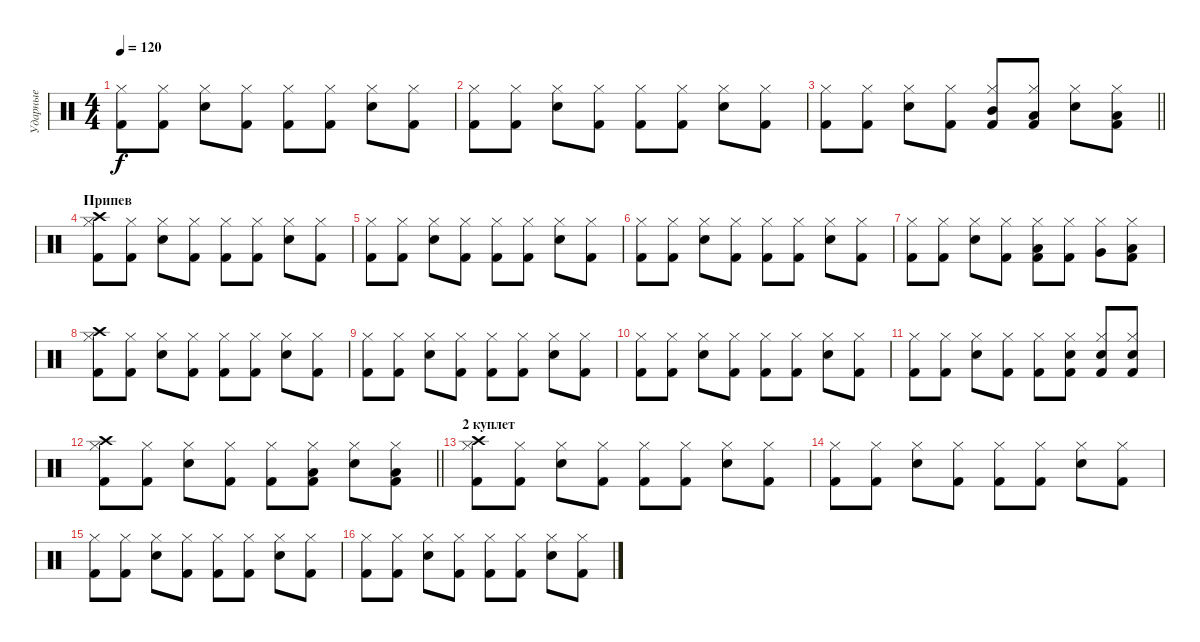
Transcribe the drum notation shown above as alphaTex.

\track ("Ударные" "Ударные") {instrument percussion}
\staff {score}
\articulation defaults
\ts (4 4)
\tempo 120
\clef neutral
\ks c
("Kick (hit) 2" "Hi-Hat (closed)").8{dy f} ("Kick (hit) 2" "Hi-Hat (closed)").8 ("Snare (hit) 2" "Hi-Hat (closed)").8 ("Kick (hit) 2" "Hi-Hat (closed)").8 ("Kick (hit) 2" "Hi-Hat (closed)").8 ("Kick (hit) 2" "Hi-Hat (closed)").8 ("Snare (hit) 2" "Hi-Hat (closed)").8 ("Kick (hit) 2" "Hi-Hat (closed)").8 |
("Kick (hit) 2" "Hi-Hat (closed)").8 ("Kick (hit) 2" "Hi-Hat (closed)").8 ("Snare (hit) 2" "Hi-Hat (closed)").8 ("Kick (hit) 2" "Hi-Hat (closed)").8 ("Kick (hit) 2" "Hi-Hat (closed)").8 ("Kick (hit) 2" "Hi-Hat (closed)").8 ("Snare (hit) 2" "Hi-Hat (closed)").8 ("Kick (hit) 2" "Hi-Hat (closed)").8 |
\barLineRight lightlight
("Kick (hit) 2" "Hi-Hat (closed)").8 ("Kick (hit) 2" "Hi-Hat (closed)").8 ("Snare (hit) 2" "Hi-Hat (closed)").8 ("Kick (hit) 2" "Hi-Hat (closed)").8 ("Kick (hit) 2" "Hi-Hat (closed)" "Mid Tom (hit)").8 ("Kick (hit) 2" "Hi-Hat (closed)" "Low Floor Tom (hit)").8 ("Snare (hit) 2" "Hi-Hat (closed)").8 ("Kick (hit) 2" "Hi-Hat (closed)" "Low Tom (hit)").8 |
\section ("" "Припев")
("Kick (hit) 2" "Hi-Hat (closed)" "Crash high (hit)").8 ("Kick (hit) 2" "Hi-Hat (closed)").8 ("Snare (hit) 2" "Hi-Hat (closed)").8 ("Kick (hit) 2" "Hi-Hat (closed)").8 ("Kick (hit) 2" "Hi-Hat (closed)").8 ("Kick (hit) 2" "Hi-Hat (closed)").8 ("Snare (hit) 2" "Hi-Hat (closed)").8 ("Kick (hit) 2" "Hi-Hat (closed)").8 |
("Kick (hit) 2" "Hi-Hat (closed)").8 ("Kick (hit) 2" "Hi-Hat (closed)").8 ("Snare (hit) 2" "Hi-Hat (closed)").8 ("Kick (hit) 2" "Hi-Hat (closed)").8 ("Kick (hit) 2" "Hi-Hat (closed)").8 ("Kick (hit) 2" "Hi-Hat (closed)").8 ("Snare (hit) 2" "Hi-Hat (closed)").8 ("Kick (hit) 2" "Hi-Hat (closed)").8 |
("Kick (hit) 2" "Hi-Hat (closed)").8 ("Kick (hit) 2" "Hi-Hat (closed)").8 ("Snare (hit) 2" "Hi-Hat (closed)").8 ("Kick (hit) 2" "Hi-Hat (closed)").8 ("Kick (hit) 2" "Hi-Hat (closed)").8 ("Kick (hit) 2" "Hi-Hat (closed)").8 ("Snare (hit) 2" "Hi-Hat (closed)").8 ("Kick (hit) 2" "Hi-Hat (closed)").8 |
("Kick (hit) 2" "Hi-Hat (closed)").8 ("Kick (hit) 2" "Hi-Hat (closed)").8 ("Snare (hit) 2" "Hi-Hat (closed)").8 ("Kick (hit) 2" "Hi-Hat (closed)").8 ("Kick (hit) 2" "Hi-Hat (closed)" "Low Tom (hit)").8 ("Kick (hit) 2" "Hi-Hat (closed)").8 ("Hi-Hat (closed)" "Very Low Tom (hit)").8 ("Kick (hit) 2" "Hi-Hat (closed)" "Low Floor Tom (hit)").8 |
("Kick (hit) 2" "Hi-Hat (closed)" "Crash high (hit)").8 ("Kick (hit) 2" "Hi-Hat (closed)").8 ("Snare (hit) 2" "Hi-Hat (closed)").8 ("Kick (hit) 2" "Hi-Hat (closed)").8 ("Kick (hit) 2" "Hi-Hat (closed)").8 ("Kick (hit) 2" "Hi-Hat (closed)").8 ("Snare (hit) 2" "Hi-Hat (closed)").8 ("Kick (hit) 2" "Hi-Hat (closed)").8 |
("Kick (hit) 2" "Hi-Hat (closed)").8 ("Kick (hit) 2" "Hi-Hat (closed)").8 ("Snare (hit) 2" "Hi-Hat (closed)").8 ("Kick (hit) 2" "Hi-Hat (closed)").8 ("Kick (hit) 2" "Hi-Hat (closed)").8 ("Kick (hit) 2" "Hi-Hat (closed)").8 ("Snare (hit) 2" "Hi-Hat (closed)").8 ("Kick (hit) 2" "Hi-Hat (closed)").8 |
("Kick (hit) 2" "Hi-Hat (closed)").8 ("Kick (hit) 2" "Hi-Hat (closed)").8 ("Snare (hit) 2" "Hi-Hat (closed)").8 ("Kick (hit) 2" "Hi-Hat (closed)").8 ("Kick (hit) 2" "Hi-Hat (closed)").8 ("Kick (hit) 2" "Hi-Hat (closed)").8 ("Snare (hit) 2" "Hi-Hat (closed)").8 ("Kick (hit) 2" "Hi-Hat (closed)").8 |
("Kick (hit) 2" "Hi-Hat (closed)").8 ("Kick (hit) 2" "Hi-Hat (closed)").8 ("Snare (hit) 2" "Hi-Hat (closed)").8 ("Kick (hit) 2" "Hi-Hat (closed)").8 ("Kick (hit) 2" "Hi-Hat (closed)").8 ("Kick (hit) 2" "Hi-Hat (closed)" "Snare (hit) 2").8 ("Snare (hit) 2" "Hi-Hat (closed)" "Kick (hit) 2").8 ("Kick (hit) 2" "Hi-Hat (closed)" "Snare (hit) 2").8 |
\barLineRight lightlight
("Kick (hit) 2" "Hi-Hat (closed)" "Crash high (hit)").8 ("Kick (hit) 2" "Hi-Hat (closed)").8 ("Snare (hit) 2" "Hi-Hat (closed)").8 ("Kick (hit) 2" "Hi-Hat (closed)").8 ("Kick (hit) 2" "Hi-Hat (closed)").8 ("Kick (hit) 2" "Hi-Hat (closed)" "Low Tom (hit)").8 ("Snare (hit) 2" "Hi-Hat (closed)").8 ("Kick (hit) 2" "Hi-Hat (closed)" "Low Floor Tom (hit)").8 |
\section ("" "2 куплет")
("Kick (hit) 2" "Hi-Hat (closed)" "Crash high (hit)").8 ("Kick (hit) 2" "Hi-Hat (closed)").8 ("Snare (hit) 2" "Hi-Hat (closed)").8 ("Kick (hit) 2" "Hi-Hat (closed)").8 ("Kick (hit) 2" "Hi-Hat (closed)").8 ("Kick (hit) 2" "Hi-Hat (closed)").8 ("Snare (hit) 2" "Hi-Hat (closed)").8 ("Kick (hit) 2" "Hi-Hat (closed)").8 |
("Kick (hit) 2" "Hi-Hat (closed)").8 ("Kick (hit) 2" "Hi-Hat (closed)").8 ("Snare (hit) 2" "Hi-Hat (closed)").8 ("Kick (hit) 2" "Hi-Hat (closed)").8 ("Kick (hit) 2" "Hi-Hat (closed)").8 ("Kick (hit) 2" "Hi-Hat (closed)").8 ("Snare (hit) 2" "Hi-Hat (closed)").8 ("Kick (hit) 2" "Hi-Hat (closed)").8 |
("Kick (hit) 2" "Hi-Hat (closed)").8 ("Kick (hit) 2" "Hi-Hat (closed)").8 ("Snare (hit) 2" "Hi-Hat (closed)").8 ("Kick (hit) 2" "Hi-Hat (closed)").8 ("Kick (hit) 2" "Hi-Hat (closed)").8 ("Kick (hit) 2" "Hi-Hat (closed)").8 ("Snare (hit) 2" "Hi-Hat (closed)").8 ("Kick (hit) 2" "Hi-Hat (closed)").8 |
("Kick (hit) 2" "Hi-Hat (closed)").8 ("Kick (hit) 2" "Hi-Hat (closed)").8 ("Snare (hit) 2" "Hi-Hat (closed)").8 ("Kick (hit) 2" "Hi-Hat (closed)").8 ("Kick (hit) 2" "Hi-Hat (closed)").8 ("Kick (hit) 2" "Hi-Hat (closed)").8 ("Snare (hit) 2" "Hi-Hat (closed)").8 ("Kick (hit) 2" "Hi-Hat (closed)").8
